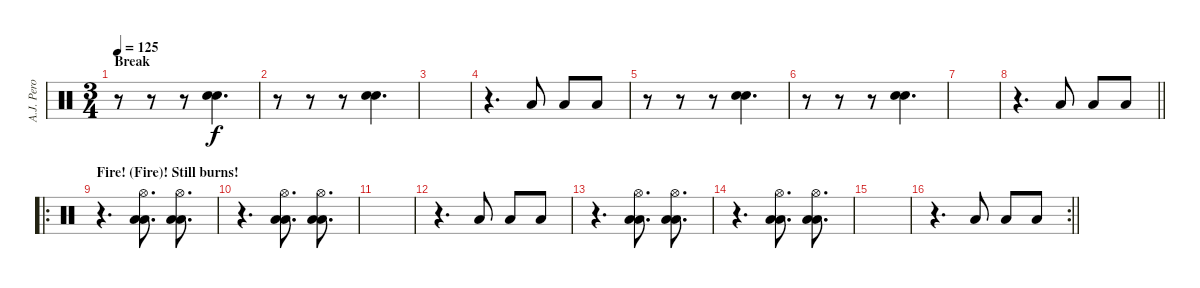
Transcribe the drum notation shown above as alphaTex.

\track ("A.J. Pero" "A.J. Pero") {instrument percussion}
\staff {score}
\articulation defaults
\ts (3 4)
\section ("" "Break")
\tempo 125
\clef neutral
\ks c
r.8{dy f} r.8 r.8 ("Electric Snare (hit)" "Electric Snare (hit)").4{d} |
r.8 r.8 r.8 ("Electric Snare (hit)" "Electric Snare (hit)").4{d} |
|
r.4{d} "Low Tom (hit)".8 "Low Tom (hit)".8 "Low Tom (hit)".8 |
r.8 r.8 r.8 ("Electric Snare (hit)" "Electric Snare (hit)").4{d} |
r.8 r.8 r.8 ("Electric Snare (hit)" "Electric Snare (hit)").4{d} |
|
\barLineRight lightlight
r.4{d} "Low Tom (hit)".8 "Low Tom (hit)".8 "Low Tom (hit)".8 |
\ro
\section ("" "Fire! (Fire)! Still burns! ")
r.4{d} ("Hi-Hat (open)" "Low Tom (hit)" "Low Tom (hit)").8{d} ("Hi-Hat (open)" "Low Tom (hit)" "Low Tom (hit)").8{d} |
r.4{d} ("Hi-Hat (open)" "Low Tom (hit)" "Low Tom (hit)").8{d} ("Hi-Hat (open)" "Low Tom (hit)" "Low Tom (hit)").8{d} |
|
r.4{d} "Low Tom (hit)".8 "Low Tom (hit)".8 "Low Tom (hit)".8 |
r.4{d} ("Hi-Hat (open)" "Low Tom (hit)" "Low Tom (hit)").8{d} ("Hi-Hat (open)" "Low Tom (hit)" "Low Tom (hit)").8{d} |
r.4{d} ("Hi-Hat (open)" "Low Tom (hit)" "Low Tom (hit)").8{d} ("Hi-Hat (open)" "Low Tom (hit)" "Low Tom (hit)").8{d} |
|
\rc 2
\barLineRight lightlight
r.4{d} "Low Tom (hit)".8 "Low Tom (hit)".8 "Low Tom (hit)".8
